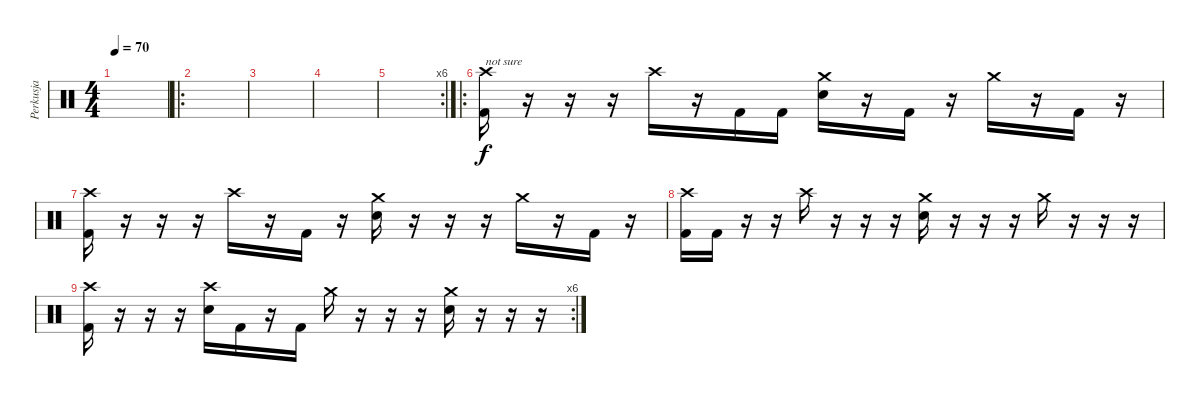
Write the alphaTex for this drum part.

\track ("Perkusja" "Perkusja") {instrument percussion}
\staff {score}
\articulation defaults
\ts (4 4)
\tempo 70
\clef neutral
\ks c
|
\ro
|
|
|
\rc 6
|
\ro
("Crash high (hit)" "Kick (hit) 2").16{txt "not sure"} r.16 r.16 r.16 "Crash high (hit)".16 r.16 "Kick (hit) 2".16 "Kick (hit) 2".16 ("Crash medium (hit)" "Electric Snare (hit)").16 r.16 "Kick (hit) 2".16 r.16 "Crash medium (hit)".16 r.16 "Kick (hit) 2".16 r.16 |
("Kick (hit) 2" "Crash high (hit)").16 r.16 r.16 r.16 "Crash high (hit)".16 r.16 "Kick (hit) 2".16 r.16 ("Crash medium (hit)" "Electric Snare (hit)").16 r.16 r.16 r.16 "Crash medium (hit)".16 r.16 "Kick (hit) 2".16 r.16 |
("Crash high (hit)" "Kick (hit) 2").16 "Kick (hit) 2".16 r.16 r.16 "Crash high (hit)".16 r.16 r.16 r.16 ("Crash medium (hit)" "Electric Snare (hit)").16 r.16 r.16 r.16 "Crash medium (hit)".16 r.16 r.16 r.16 |
\rc 6
("Crash high (hit)" "Kick (hit) 2").16 r.16 r.16 r.16 ("Crash high (hit)" "Electric Snare (hit)").16 "Kick (hit) 2".16 r.16 "Kick (hit) 2".16 "Crash medium (hit)".16 r.16 r.16 r.16 ("Crash medium (hit)" "Electric Snare (hit)").16 r.16 r.16 r.16
